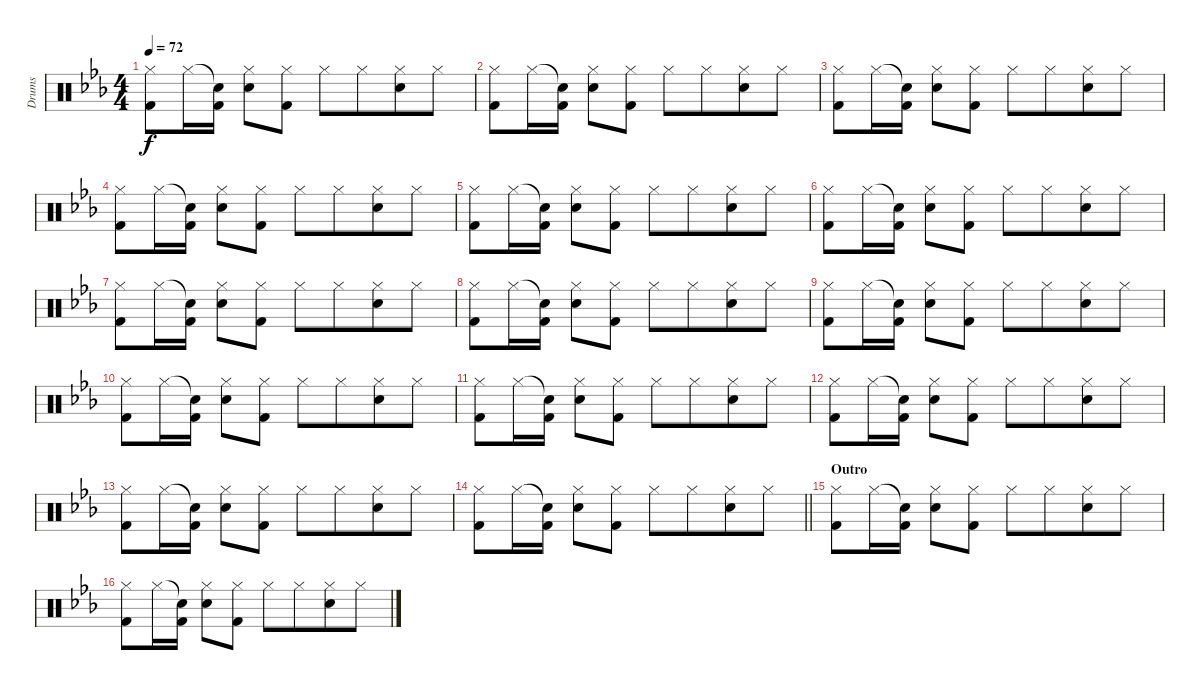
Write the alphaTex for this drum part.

\track ("Drums" "Drums") {instrument percussion}
\staff {score}
\articulation defaults
\ts (4 4)
\tempo 72
\clef neutral
\ks eb
("Hi-Hat (closed)" "Kick (hit) 2").8{dy f} "Hi-Hat (closed)".16 ("Snare (hit)"{t} "Kick (hit) 2").16 ("Hi-Hat (closed)" "Snare (hit) 2").8 ("Hi-Hat (closed)" "Kick (hit) 2").8 "Hi-Hat (closed)".8 "Hi-Hat (closed)".8{beam merge} ("Hi-Hat (closed)" "Snare (hit) 2").8 "Hi-Hat (closed)".8 |
("Hi-Hat (closed)" "Kick (hit) 2").8 "Hi-Hat (closed)".16 ("Snare (hit)"{t} "Kick (hit) 2").16 ("Hi-Hat (closed)" "Snare (hit) 2").8 ("Hi-Hat (closed)" "Kick (hit) 2").8 "Hi-Hat (closed)".8 "Hi-Hat (closed)".8{beam merge} ("Hi-Hat (closed)" "Snare (hit) 2").8 "Hi-Hat (closed)".8 |
("Hi-Hat (closed)" "Kick (hit) 2").8 "Hi-Hat (closed)".16 ("Snare (hit)"{t} "Kick (hit) 2").16 ("Hi-Hat (closed)" "Snare (hit) 2").8 ("Hi-Hat (closed)" "Kick (hit) 2").8 "Hi-Hat (closed)".8 "Hi-Hat (closed)".8{beam merge} ("Hi-Hat (closed)" "Snare (hit) 2").8 "Hi-Hat (closed)".8 |
("Hi-Hat (closed)" "Kick (hit) 2").8 "Hi-Hat (closed)".16 ("Snare (hit)"{t} "Kick (hit) 2").16 ("Hi-Hat (closed)" "Snare (hit) 2").8 ("Hi-Hat (closed)" "Kick (hit) 2").8 "Hi-Hat (closed)".8 "Hi-Hat (closed)".8{beam merge} ("Hi-Hat (closed)" "Snare (hit) 2").8 "Hi-Hat (closed)".8 |
("Hi-Hat (closed)" "Kick (hit) 2").8 "Hi-Hat (closed)".16 ("Snare (hit)"{t} "Kick (hit) 2").16 ("Hi-Hat (closed)" "Snare (hit) 2").8 ("Hi-Hat (closed)" "Kick (hit) 2").8 "Hi-Hat (closed)".8 "Hi-Hat (closed)".8{beam merge} ("Hi-Hat (closed)" "Snare (hit) 2").8 "Hi-Hat (closed)".8 |
("Hi-Hat (closed)" "Kick (hit) 2").8 "Hi-Hat (closed)".16 ("Snare (hit)"{t} "Kick (hit) 2").16 ("Hi-Hat (closed)" "Snare (hit) 2").8 ("Hi-Hat (closed)" "Kick (hit) 2").8 "Hi-Hat (closed)".8 "Hi-Hat (closed)".8{beam merge} ("Hi-Hat (closed)" "Snare (hit) 2").8 "Hi-Hat (closed)".8 |
("Hi-Hat (closed)" "Kick (hit) 2").8 "Hi-Hat (closed)".16 ("Snare (hit)"{t} "Kick (hit) 2").16 ("Hi-Hat (closed)" "Snare (hit) 2").8 ("Hi-Hat (closed)" "Kick (hit) 2").8 "Hi-Hat (closed)".8 "Hi-Hat (closed)".8{beam merge} ("Hi-Hat (closed)" "Snare (hit) 2").8 "Hi-Hat (closed)".8 |
("Hi-Hat (closed)" "Kick (hit) 2").8 "Hi-Hat (closed)".16 ("Snare (hit)"{t} "Kick (hit) 2").16 ("Hi-Hat (closed)" "Snare (hit) 2").8 ("Hi-Hat (closed)" "Kick (hit) 2").8 "Hi-Hat (closed)".8 "Hi-Hat (closed)".8{beam merge} ("Hi-Hat (closed)" "Snare (hit) 2").8 "Hi-Hat (closed)".8 |
("Hi-Hat (closed)" "Kick (hit) 2").8 "Hi-Hat (closed)".16 ("Snare (hit)"{t} "Kick (hit) 2").16 ("Hi-Hat (closed)" "Snare (hit) 2").8 ("Hi-Hat (closed)" "Kick (hit) 2").8 "Hi-Hat (closed)".8 "Hi-Hat (closed)".8{beam merge} ("Hi-Hat (closed)" "Snare (hit) 2").8 "Hi-Hat (closed)".8 |
("Hi-Hat (closed)" "Kick (hit) 2").8 "Hi-Hat (closed)".16 ("Snare (hit)"{t} "Kick (hit) 2").16 ("Hi-Hat (closed)" "Snare (hit) 2").8 ("Hi-Hat (closed)" "Kick (hit) 2").8 "Hi-Hat (closed)".8 "Hi-Hat (closed)".8{beam merge} ("Hi-Hat (closed)" "Snare (hit) 2").8 "Hi-Hat (closed)".8 |
("Hi-Hat (closed)" "Kick (hit) 2").8 "Hi-Hat (closed)".16 ("Snare (hit)"{t} "Kick (hit) 2").16 ("Hi-Hat (closed)" "Snare (hit) 2").8 ("Hi-Hat (closed)" "Kick (hit) 2").8 "Hi-Hat (closed)".8 "Hi-Hat (closed)".8{beam merge} ("Hi-Hat (closed)" "Snare (hit) 2").8 "Hi-Hat (closed)".8 |
("Hi-Hat (closed)" "Kick (hit) 2").8 "Hi-Hat (closed)".16 ("Snare (hit)"{t} "Kick (hit) 2").16 ("Hi-Hat (closed)" "Snare (hit) 2").8 ("Hi-Hat (closed)" "Kick (hit) 2").8 "Hi-Hat (closed)".8 "Hi-Hat (closed)".8{beam merge} ("Hi-Hat (closed)" "Snare (hit) 2").8 "Hi-Hat (closed)".8 |
("Hi-Hat (closed)" "Kick (hit) 2").8 "Hi-Hat (closed)".16 ("Snare (hit)"{t} "Kick (hit) 2").16 ("Hi-Hat (closed)" "Snare (hit) 2").8 ("Hi-Hat (closed)" "Kick (hit) 2").8 "Hi-Hat (closed)".8 "Hi-Hat (closed)".8{beam merge} ("Hi-Hat (closed)" "Snare (hit) 2").8 "Hi-Hat (closed)".8 |
\barLineRight lightlight
("Hi-Hat (closed)" "Kick (hit) 2").8 "Hi-Hat (closed)".16 ("Snare (hit)"{t} "Kick (hit) 2").16 ("Hi-Hat (closed)" "Snare (hit) 2").8 ("Hi-Hat (closed)" "Kick (hit) 2").8 "Hi-Hat (closed)".8 "Hi-Hat (closed)".8{beam merge} ("Hi-Hat (closed)" "Snare (hit) 2").8 "Hi-Hat (closed)".8 |
\section ("" "Outro")
("Hi-Hat (closed)" "Kick (hit) 2").8 "Hi-Hat (closed)".16 ("Snare (hit)"{t} "Kick (hit) 2").16 ("Hi-Hat (closed)" "Snare (hit) 2").8 ("Hi-Hat (closed)" "Kick (hit) 2").8 "Hi-Hat (closed)".8 "Hi-Hat (closed)".8{beam merge} ("Hi-Hat (closed)" "Snare (hit) 2").8 "Hi-Hat (closed)".8 |
("Hi-Hat (closed)" "Kick (hit) 2").8 "Hi-Hat (closed)".16 ("Snare (hit)"{t} "Kick (hit) 2").16 ("Hi-Hat (closed)" "Snare (hit) 2").8 ("Hi-Hat (closed)" "Kick (hit) 2").8 "Hi-Hat (closed)".8 "Hi-Hat (closed)".8{beam merge} ("Hi-Hat (closed)" "Snare (hit) 2").8 "Hi-Hat (closed)".8
